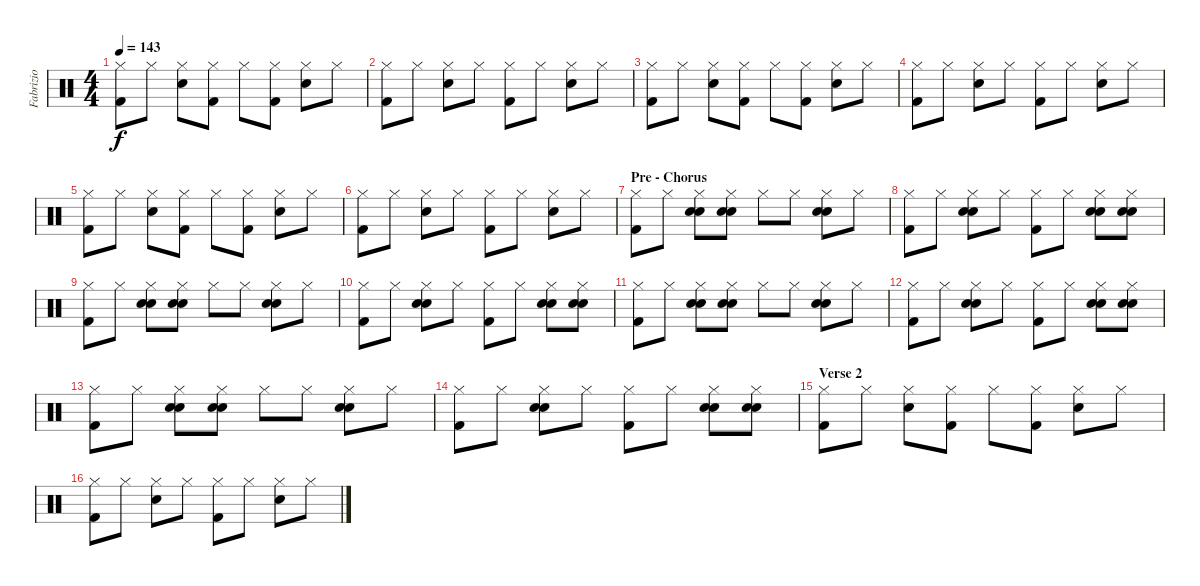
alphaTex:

\track ("Fabrizio" "Fabrizio") {instrument percussion}
\staff {score}
\articulation defaults
\ts (4 4)
\tempo 143
\clef neutral
\ks c
("Hi-Hat (closed)" "Kick (hit) 2").8{dy f} "Hi-Hat (closed)".8 ("Hi-Hat (closed)" "Electric Snare (hit)").8 ("Hi-Hat (closed)" "Kick (hit) 2").8 "Hi-Hat (closed)".8 ("Hi-Hat (closed)" "Kick (hit) 2").8 ("Hi-Hat (closed)" "Electric Snare (hit)").8 "Hi-Hat (closed)".8 |
("Hi-Hat (closed)" "Kick (hit) 2").8 "Hi-Hat (closed)".8 ("Hi-Hat (closed)" "Electric Snare (hit)").8 "Hi-Hat (closed)".8 ("Hi-Hat (closed)" "Kick (hit) 2").8 "Hi-Hat (closed)".8 ("Hi-Hat (closed)" "Electric Snare (hit)").8 "Hi-Hat (closed)".8 |
("Hi-Hat (closed)" "Kick (hit) 2").8 "Hi-Hat (closed)".8 ("Hi-Hat (closed)" "Electric Snare (hit)").8 ("Hi-Hat (closed)" "Kick (hit) 2").8 "Hi-Hat (closed)".8 ("Hi-Hat (closed)" "Kick (hit) 2").8 ("Hi-Hat (closed)" "Electric Snare (hit)").8 "Hi-Hat (closed)".8 |
("Hi-Hat (closed)" "Kick (hit) 2").8 "Hi-Hat (closed)".8 ("Hi-Hat (closed)" "Electric Snare (hit)").8 "Hi-Hat (closed)".8 ("Hi-Hat (closed)" "Kick (hit) 2").8 "Hi-Hat (closed)".8 ("Hi-Hat (closed)" "Electric Snare (hit)").8 "Hi-Hat (closed)".8 |
("Hi-Hat (closed)" "Kick (hit) 2").8 "Hi-Hat (closed)".8 ("Hi-Hat (closed)" "Electric Snare (hit)").8 ("Hi-Hat (closed)" "Kick (hit) 2").8 "Hi-Hat (closed)".8 ("Hi-Hat (closed)" "Kick (hit) 2").8 ("Hi-Hat (closed)" "Electric Snare (hit)").8 "Hi-Hat (closed)".8 |
("Hi-Hat (closed)" "Kick (hit) 2").8 "Hi-Hat (closed)".8 ("Hi-Hat (closed)" "Electric Snare (hit)").8 "Hi-Hat (closed)".8 ("Hi-Hat (closed)" "Kick (hit) 2").8 "Hi-Hat (closed)".8 ("Hi-Hat (closed)" "Electric Snare (hit)").8 "Hi-Hat (closed)".8 |
\section ("" "Pre - Chorus")
("Hi-Hat (closed)" "Kick (hit) 2").8 "Hi-Hat (closed)".8 ("Hi-Hat (closed)" "Electric Snare (hit)" "Hand Clap (hit)").8 ("Hi-Hat (closed)" "Electric Snare (hit)" "Hand Clap (hit)").8 "Hi-Hat (closed)".8 "Hi-Hat (closed)".8 ("Hi-Hat (closed)" "Electric Snare (hit)" "Hand Clap (hit)").8 "Hi-Hat (closed)".8 |
("Hi-Hat (closed)" "Kick (hit) 2").8 "Hi-Hat (closed)".8 ("Hi-Hat (closed)" "Electric Snare (hit)" "Hand Clap (hit)").8 "Hi-Hat (closed)".8 ("Hi-Hat (closed)" "Kick (hit) 2").8 "Hi-Hat (closed)".8 ("Hi-Hat (closed)" "Electric Snare (hit)" "Hand Clap (hit)").8 ("Hi-Hat (closed)" "Electric Snare (hit)" "Hand Clap (hit)").8 |
("Hi-Hat (closed)" "Kick (hit) 2").8 "Hi-Hat (closed)".8 ("Hi-Hat (closed)" "Electric Snare (hit)" "Hand Clap (hit)").8 ("Hi-Hat (closed)" "Electric Snare (hit)" "Hand Clap (hit)").8 "Hi-Hat (closed)".8 "Hi-Hat (closed)".8 ("Hi-Hat (closed)" "Electric Snare (hit)" "Hand Clap (hit)").8 "Hi-Hat (closed)".8 |
("Hi-Hat (closed)" "Kick (hit) 2").8 "Hi-Hat (closed)".8 ("Hi-Hat (closed)" "Electric Snare (hit)" "Hand Clap (hit)").8 "Hi-Hat (closed)".8 ("Hi-Hat (closed)" "Kick (hit) 2").8 "Hi-Hat (closed)".8 ("Hi-Hat (closed)" "Electric Snare (hit)" "Hand Clap (hit)").8 ("Hi-Hat (closed)" "Electric Snare (hit)" "Hand Clap (hit)").8 |
("Hi-Hat (closed)" "Kick (hit) 2").8 "Hi-Hat (closed)".8 ("Hi-Hat (closed)" "Electric Snare (hit)" "Hand Clap (hit)").8 ("Hi-Hat (closed)" "Electric Snare (hit)" "Hand Clap (hit)").8 "Hi-Hat (closed)".8 "Hi-Hat (closed)".8 ("Hi-Hat (closed)" "Electric Snare (hit)" "Hand Clap (hit)").8 "Hi-Hat (closed)".8 |
("Hi-Hat (closed)" "Kick (hit) 2").8 "Hi-Hat (closed)".8 ("Hi-Hat (closed)" "Electric Snare (hit)" "Hand Clap (hit)").8 "Hi-Hat (closed)".8 ("Hi-Hat (closed)" "Kick (hit) 2").8 "Hi-Hat (closed)".8 ("Hi-Hat (closed)" "Electric Snare (hit)" "Hand Clap (hit)").8 ("Hi-Hat (closed)" "Electric Snare (hit)" "Hand Clap (hit)").8 |
("Hi-Hat (closed)" "Kick (hit) 2").8 "Hi-Hat (closed)".8 ("Hi-Hat (closed)" "Electric Snare (hit)" "Hand Clap (hit)").8 ("Hi-Hat (closed)" "Electric Snare (hit)" "Hand Clap (hit)").8 "Hi-Hat (closed)".8 "Hi-Hat (closed)".8 ("Hi-Hat (closed)" "Electric Snare (hit)" "Hand Clap (hit)").8 "Hi-Hat (closed)".8 |
("Hi-Hat (closed)" "Kick (hit) 2").8 "Hi-Hat (closed)".8 ("Hi-Hat (closed)" "Electric Snare (hit)" "Hand Clap (hit)").8 "Hi-Hat (closed)".8 ("Hi-Hat (closed)" "Kick (hit) 2").8 "Hi-Hat (closed)".8 ("Hi-Hat (closed)" "Electric Snare (hit)" "Hand Clap (hit)").8 ("Hi-Hat (closed)" "Electric Snare (hit)" "Hand Clap (hit)").8 |
\section ("" "Verse 2")
("Hi-Hat (closed)" "Kick (hit) 2").8 "Hi-Hat (closed)".8 ("Hi-Hat (closed)" "Electric Snare (hit)").8 ("Hi-Hat (closed)" "Kick (hit) 2").8 "Hi-Hat (closed)".8 ("Hi-Hat (closed)" "Kick (hit) 2").8 ("Hi-Hat (closed)" "Electric Snare (hit)").8 "Hi-Hat (closed)".8 |
("Hi-Hat (closed)" "Kick (hit) 2").8 "Hi-Hat (closed)".8 ("Hi-Hat (closed)" "Electric Snare (hit)").8 "Hi-Hat (closed)".8 ("Hi-Hat (closed)" "Kick (hit) 2").8 "Hi-Hat (closed)".8 ("Hi-Hat (closed)" "Electric Snare (hit)").8 "Hi-Hat (closed)".8
